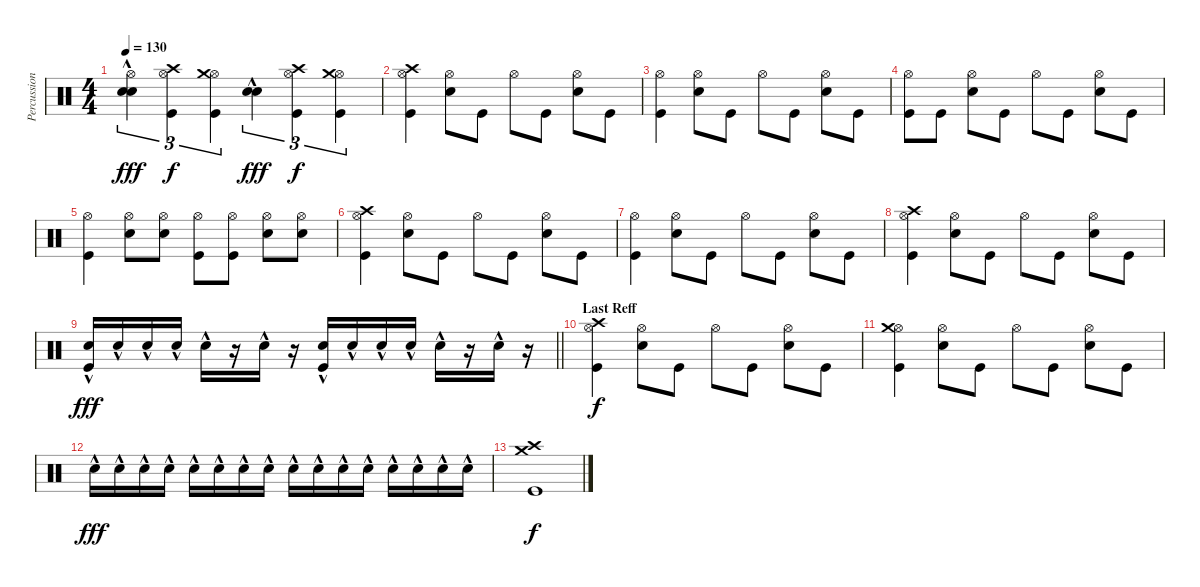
\track ("Percussion 1" "Percussion") {instrument percussion}
\staff {score}
\articulation defaults
\ts (4 4)
\tempo 130
\clef neutral
\ks c
("Hi-Hat (open)" "Electric Snare (hit)"{hac} "Electric Snare (hit)"{hac}).4{tu (3 2) bd 60 dy fff} ("Hi-Hat (open)" "Crash high (hit)" "Kick (hit)").4{tu (3 2) dy f} ("Hi-Hat (open)" "Crash medium (hit)" "Kick (hit)").4{tu (3 2)} ("Electric Snare (hit)"{hac} "Electric Snare (hit)"{hac}).4{tu (3 2) bd 60 dy fff} ("Hi-Hat (open)" "Crash high (hit)" "Kick (hit)").4{tu (3 2) dy f} ("Hi-Hat (open)" "Crash medium (hit)" "Kick (hit)").4{tu (3 2)} |
("Hi-Hat (open)" "Crash high (hit)" "Kick (hit)").4 ("Hi-Hat (open)" "Electric Snare (hit)").8 "Kick (hit)".8 "Hi-Hat (open)".8 "Kick (hit)".8 ("Hi-Hat (open)" "Electric Snare (hit)").8 "Kick (hit)".8 |
("Hi-Hat (open)" "Kick (hit)").4 ("Hi-Hat (open)" "Electric Snare (hit)").8 "Kick (hit)".8 "Hi-Hat (open)".8 "Kick (hit)".8 ("Hi-Hat (open)" "Electric Snare (hit)").8 "Kick (hit)".8 |
("Hi-Hat (open)" "Kick (hit)").8 "Kick (hit)".8 ("Hi-Hat (open)" "Electric Snare (hit)").8 "Kick (hit)".8 "Hi-Hat (open)".8 "Kick (hit)".8 ("Hi-Hat (open)" "Electric Snare (hit)").8 "Kick (hit)".8 |
("Hi-Hat (open)" "Kick (hit)").4 ("Hi-Hat (open)" "Electric Snare (hit)").8 ("Hi-Hat (open)" "Electric Snare (hit)").8 ("Hi-Hat (open)" "Kick (hit)").8 ("Hi-Hat (open)" "Kick (hit)").8 ("Hi-Hat (open)" "Electric Snare (hit)").8 ("Hi-Hat (open)" "Electric Snare (hit)").8 |
("Hi-Hat (open)" "Crash high (hit)" "Kick (hit)").4 ("Hi-Hat (open)" "Electric Snare (hit)").8 "Kick (hit)".8 "Hi-Hat (open)".8 "Kick (hit)".8 ("Hi-Hat (open)" "Electric Snare (hit)").8 "Kick (hit)".8 |
("Hi-Hat (open)" "Kick (hit)").4 ("Hi-Hat (open)" "Electric Snare (hit)").8 "Kick (hit)".8 "Hi-Hat (open)".8 "Kick (hit)".8 ("Hi-Hat (open)" "Electric Snare (hit)").8 "Kick (hit)".8 |
("Hi-Hat (open)" "Crash high (hit)" "Kick (hit)").4 ("Hi-Hat (open)" "Electric Snare (hit)").8 "Kick (hit)".8 "Hi-Hat (open)".8 "Kick (hit)".8 ("Hi-Hat (open)" "Electric Snare (hit)").8 "Kick (hit)".8 |
\barLineRight lightlight
("Electric Snare (hit)"{hac} "Kick (hit)"{hac}).16{dy fff} "Electric Snare (hit)"{hac}.16 "Electric Snare (hit)"{hac}.16 "Electric Snare (hit)"{hac}.16 "Electric Snare (hit)"{hac}.16 r.16 "Electric Snare (hit)"{hac}.16 r.16 ("Electric Snare (hit)"{hac} "Kick (hit)"{hac}).16 "Electric Snare (hit)"{hac}.16 "Electric Snare (hit)"{hac}.16 "Electric Snare (hit)"{hac}.16 "Electric Snare (hit)"{hac}.16 r.16 "Electric Snare (hit)"{hac}.16 r.16 |
\section ("" "Last Reff")
("Hi-Hat (open)" "Crash high (hit)" "Kick (hit)").4{dy f} ("Hi-Hat (open)" "Electric Snare (hit)").8 "Kick (hit)".8 "Hi-Hat (open)".8 "Kick (hit)".8 ("Hi-Hat (open)" "Electric Snare (hit)").8 "Kick (hit)".8 |
("Hi-Hat (open)" "Crash medium (hit)" "Kick (hit)").4 ("Hi-Hat (open)" "Electric Snare (hit)").8 "Kick (hit)".8 "Hi-Hat (open)".8 "Kick (hit)".8 ("Hi-Hat (open)" "Electric Snare (hit)").8 "Kick (hit)".8 |
"Electric Snare (hit)"{hac}.16{dy fff} "Electric Snare (hit)"{hac}.16 "Electric Snare (hit)"{hac}.16 "Electric Snare (hit)"{hac}.16 "Electric Snare (hit)"{hac}.16 "Electric Snare (hit)"{hac}.16 "Electric Snare (hit)"{hac}.16 "Electric Snare (hit)"{hac}.16 "Electric Snare (hit)"{hac}.16 "Electric Snare (hit)"{hac}.16 "Electric Snare (hit)"{hac}.16 "Electric Snare (hit)"{hac}.16 "Electric Snare (hit)"{hac}.16 "Electric Snare (hit)"{hac}.16 "Electric Snare (hit)"{hac}.16 "Electric Snare (hit)"{hac}.16 |
("Crash high (hit)" "Crash medium (hit)" "Kick (hit)").1{dy f}
